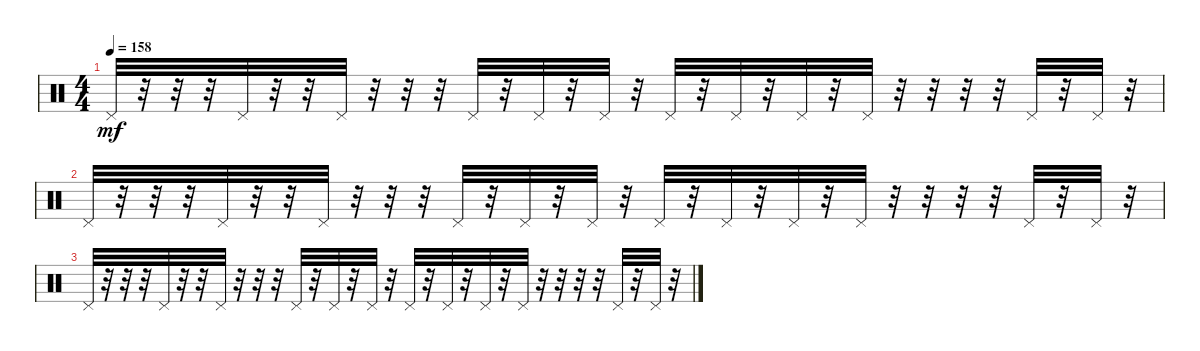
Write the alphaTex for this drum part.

\track ("   " "   ") {instrument percussion}
\staff
\articulation defaults
\ts (4 4)
\tempo 158
\clef neutral
\ks c "Pedal Hi-Hat (hit)".32{dy mf}
r.32 r.32 r.32 "Pedal Hi-Hat (hit)".32 r.32 r.32 "Pedal Hi-Hat (hit)".32 r.32 r.32 r.32 "Pedal Hi-Hat (hit)".32 r.32 "Pedal Hi-Hat (hit)".32 r.32 "Pedal Hi-Hat (hit)".32 r.32 "Pedal Hi-Hat (hit)".32 r.32 "Pedal Hi-Hat (hit)".32 r.32 "Pedal Hi-Hat (hit)".32 r.32 "Pedal Hi-Hat (hit)".32 r.32 r.32 r.32 r.32 "Pedal Hi-Hat (hit)".32 r.32 "Pedal Hi-Hat (hit)".32 r.32 |
"Pedal Hi-Hat (hit)".32 r.32 r.32 r.32 "Pedal Hi-Hat (hit)".32 r.32 r.32 "Pedal Hi-Hat (hit)".32 r.32 r.32 r.32 "Pedal Hi-Hat (hit)".32 r.32 "Pedal Hi-Hat (hit)".32 r.32 "Pedal Hi-Hat (hit)".32 r.32 "Pedal Hi-Hat (hit)".32 r.32 "Pedal Hi-Hat (hit)".32 r.32 "Pedal Hi-Hat (hit)".32 r.32 "Pedal Hi-Hat (hit)".32 r.32 r.32 r.32 r.32 "Pedal Hi-Hat (hit)".32 r.32 "Pedal Hi-Hat (hit)".32 r.32 |
"Pedal Hi-Hat (hit)".32 r.32 r.32 r.32 "Pedal Hi-Hat (hit)".32 r.32 r.32 "Pedal Hi-Hat (hit)".32 r.32 r.32 r.32 "Pedal Hi-Hat (hit)".32 r.32 "Pedal Hi-Hat (hit)".32 r.32 "Pedal Hi-Hat (hit)".32 r.32 "Pedal Hi-Hat (hit)".32 r.32 "Pedal Hi-Hat (hit)".32 r.32 "Pedal Hi-Hat (hit)".32 r.32 "Pedal Hi-Hat (hit)".32 r.32 r.32 r.32 r.32 "Pedal Hi-Hat (hit)".32 r.32 "Pedal Hi-Hat (hit)".32 r.32
